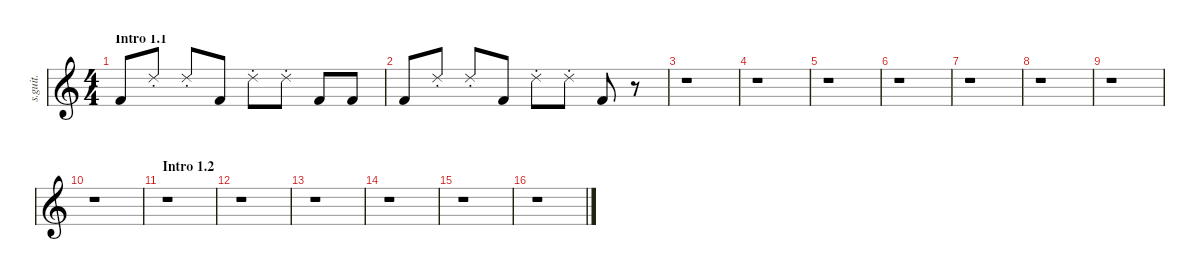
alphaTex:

\defaultSystemsLayout 4
\hideDynamics
\bracketExtendMode nobrackets
\track ("Syd Wilson" "s.guit.") {instrument percussion}
\staff {score}
\articulation defaults
\ts (4 4)
\beaming (8 2 2 2 2)
\section ("" "Intro 1.1")
\tempo (192 hide)
\clef g2
\ks c "Kick (hit) 2".8{lyrics (0 "") lyrics (1 "") lyrics (2 "") lyrics (3 "") lyrics (4 "") dy ff} "Ride (choke) 2".8{lyrics (0 "") lyrics (1 "") lyrics (2 "") lyrics (3 "") lyrics (4 "")} "Ride (choke) 2".8{lyrics (0 "") lyrics (1 "") lyrics (2 "") lyrics (3 "") lyrics (4 "")} "Kick (hit) 2".8{lyrics (0 "") lyrics (1 "") lyrics (2 "") lyrics (3 "") lyrics (4 "")} "Ride (choke) 2".8{lyrics (0 "") lyrics (1 "") lyrics (2 "") lyrics (3 "") lyrics (4 "")} "Ride (choke) 2".8{lyrics (0 "") lyrics (1 "") lyrics (2 "") lyrics (3 "") lyrics (4 "")} "Kick (hit) 2".8{lyrics (0 "") lyrics (1 "") lyrics (2 "") lyrics (3 "") lyrics (4 "")} "Kick (hit) 2".8{lyrics (0 "") lyrics (1 "") lyrics (2 "") lyrics (3 "") lyrics (4 "")}
|
"Kick (hit) 2".8{lyrics (0 "") lyrics (1 "") lyrics (2 "") lyrics (3 "") lyrics (4 "")} "Ride (choke) 2".8{lyrics (0 "") lyrics (1 "") lyrics (2 "") lyrics (3 "") lyrics (4 "")} "Ride (choke) 2".8{lyrics (0 "") lyrics (1 "") lyrics (2 "") lyrics (3 "") lyrics (4 "")} "Kick (hit) 2".8{lyrics (0 "") lyrics (1 "") lyrics (2 "") lyrics (3 "") lyrics (4 "")} "Ride (choke) 2".8{lyrics (0 "") lyrics (1 "") lyrics (2 "") lyrics (3 "") lyrics (4 "")} "Ride (choke) 2".8{lyrics (0 "") lyrics (1 "") lyrics (2 "") lyrics (3 "") lyrics (4 "")} "Kick (hit) 2".8{lyrics (0 "") lyrics (1 "") lyrics (2 "") lyrics (3 "") lyrics (4 "")} r.8 |
r.1 |
r.1 |
r.1 |
r.1 |
r.1 |
r.1 |
r.1 |
r.1 |
\section ("" "Intro 1.2")
r.1 |
r.1 |
r.1 |
r.1 |
r.1 |
r.1
